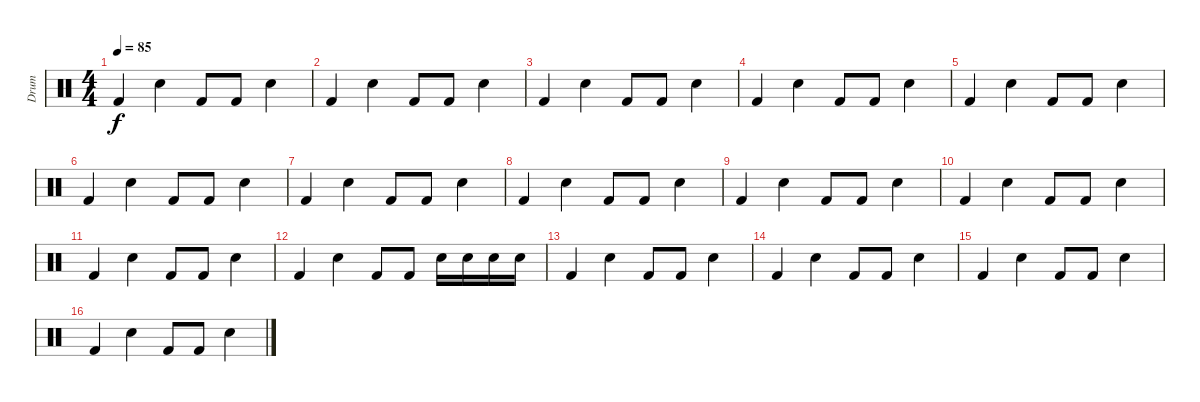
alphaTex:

\track ("Drum" "Drum") {instrument percussion}
\staff {score}
\articulation defaults
\ts (4 4)
\tempo 85
\clef neutral
\ks c "Kick (hit) 2".4{dy f} "Snare (hit) 2".4 "Kick (hit) 2".8 "Kick (hit) 2".8 "Snare (hit) 2".4
|
"Kick (hit) 2".4 "Snare (hit) 2".4 "Kick (hit) 2".8 "Kick (hit) 2".8 "Snare (hit) 2".4 |
"Kick (hit) 2".4 "Snare (hit) 2".4 "Kick (hit) 2".8 "Kick (hit) 2".8 "Snare (hit) 2".4 |
"Kick (hit) 2".4 "Snare (hit) 2".4 "Kick (hit) 2".8 "Kick (hit) 2".8 "Snare (hit) 2".4 |
"Kick (hit) 2".4 "Snare (hit) 2".4 "Kick (hit) 2".8 "Kick (hit) 2".8 "Snare (hit) 2".4 |
"Kick (hit) 2".4 "Snare (hit) 2".4 "Kick (hit) 2".8 "Kick (hit) 2".8 "Snare (hit) 2".4 |
"Kick (hit) 2".4 "Snare (hit) 2".4 "Kick (hit) 2".8 "Kick (hit) 2".8 "Snare (hit) 2".4 |
"Kick (hit) 2".4 "Snare (hit) 2".4 "Kick (hit) 2".8 "Kick (hit) 2".8 "Snare (hit) 2".4 |
"Kick (hit) 2".4 "Snare (hit) 2".4 "Kick (hit) 2".8 "Kick (hit) 2".8 "Snare (hit) 2".4 |
"Kick (hit) 2".4 "Snare (hit) 2".4 "Kick (hit) 2".8 "Kick (hit) 2".8 "Snare (hit) 2".4 |
"Kick (hit) 2".4 "Snare (hit) 2".4 "Kick (hit) 2".8 "Kick (hit) 2".8 "Snare (hit) 2".4 |
"Kick (hit) 2".4 "Snare (hit) 2".4 "Kick (hit) 2".8 "Kick (hit) 2".8 "Snare (hit) 2".16 "Snare (hit) 2".16 "Snare (hit) 2".16 "Snare (hit) 2".16 |
"Kick (hit) 2".4 "Snare (hit) 2".4 "Kick (hit) 2".8 "Kick (hit) 2".8 "Snare (hit) 2".4 |
"Kick (hit) 2".4 "Snare (hit) 2".4 "Kick (hit) 2".8 "Kick (hit) 2".8 "Snare (hit) 2".4 |
"Kick (hit) 2".4 "Snare (hit) 2".4 "Kick (hit) 2".8 "Kick (hit) 2".8 "Snare (hit) 2".4 |
"Kick (hit) 2".4 "Snare (hit) 2".4 "Kick (hit) 2".8 "Kick (hit) 2".8 "Snare (hit) 2".4
